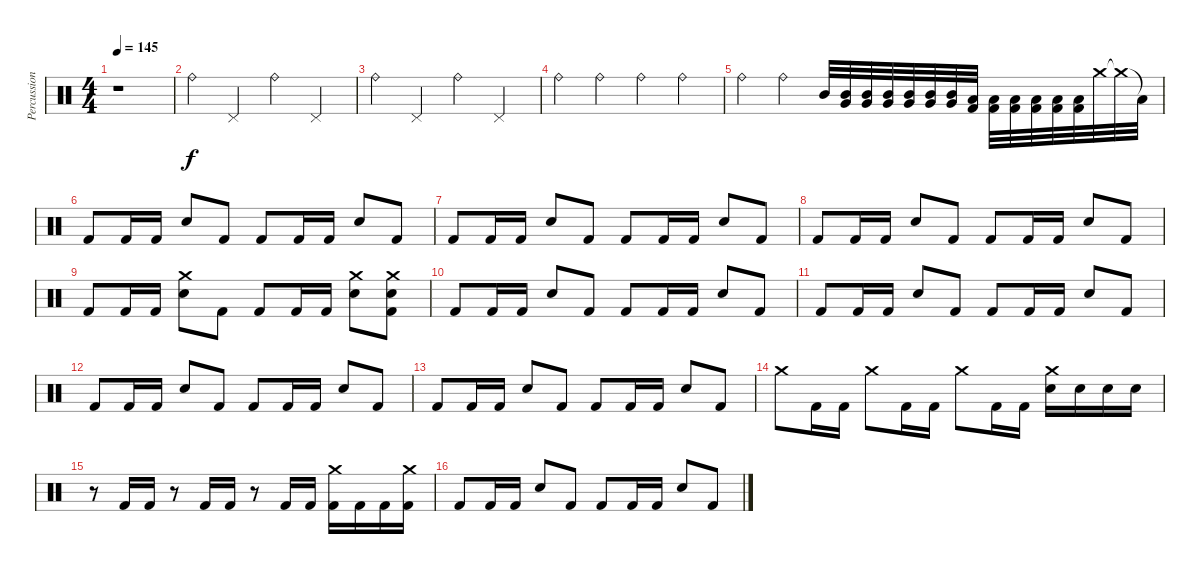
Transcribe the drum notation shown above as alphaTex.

\track ("Percussion" "Percussion") {instrument percussion}
\staff {score}
\articulation defaults
\ts (4 4)
\tempo 145
\clef neutral
\ks c
r.1{dy f} |
"Ride (bell)".4 "Pedal Hi-Hat (hit)".4 "Ride (bell)".4 "Pedal Hi-Hat (hit)".4 |
"Ride (bell)".4 "Pedal Hi-Hat (hit)".4 "Ride (bell)".4 "Pedal Hi-Hat (hit)".4 |
"Ride (bell)".4 "Ride (bell)".4 "Ride (bell)".4 "Ride (bell)".4 |
"Ride (bell)".4 "Ride (bell)".4 "Mid Tom (hit)".32{balance 0} ("Mid Tom (hit)" "Very Low Tom (hit)").32 ("Very Low Tom (hit)" "Mid Tom (hit)").32 ("Mid Tom (hit)" "Very Low Tom (hit)").32 ("Very Low Tom (hit)" "Mid Tom (hit)").32 ("Mid Tom (hit)" "Very Low Tom (hit)").32 ("Very Low Tom (hit)" "Mid Tom (hit)").32 ("Low Floor Tom (hit)" "Kick (hit) 2").32{balance 16} ("Low Floor Tom (hit)" "Kick (hit) 2").32 ("Low Floor Tom (hit)" "Kick (hit) 2").32 ("Low Floor Tom (hit)" "Kick (hit) 2").32 ("Low Floor Tom (hit)" "Kick (hit) 2").32 ("Low Floor Tom (hit)" "Kick (hit) 2").32 "Crash medium (hit)".32{balance 8} "Crash medium (hit)"{t}.32 "Low Tom (hit)"{t}.32 |
"Kick (hit) 2".8 "Kick (hit) 2".16 "Kick (hit) 2".16 "Snare (hit) 2".8 "Kick (hit) 2".8 "Kick (hit) 2".8 "Kick (hit) 2".16 "Kick (hit) 2".16 "Snare (hit) 2".8 "Kick (hit) 2".8 |
"Kick (hit) 2".8 "Kick (hit) 2".16 "Kick (hit) 2".16 "Snare (hit) 2".8 "Kick (hit) 2".8 "Kick (hit) 2".8 "Kick (hit) 2".16 "Kick (hit) 2".16 "Snare (hit) 2".8 "Kick (hit) 2".8 |
"Kick (hit) 2".8 "Kick (hit) 2".16 "Kick (hit) 2".16 "Snare (hit) 2".8 "Kick (hit) 2".8 "Kick (hit) 2".8 "Kick (hit) 2".16 "Kick (hit) 2".16 "Snare (hit) 2".8 "Kick (hit) 2".8 |
"Kick (hit) 2".8 "Kick (hit) 2".16 "Kick (hit) 2".16 ("Crash medium (hit)" "Snare (hit) 2").8 "Kick (hit) 2".8 "Kick (hit) 2".8 "Kick (hit) 2".16 "Kick (hit) 2".16 ("Crash medium (hit)" "Snare (hit) 2").8 ("Crash medium (hit)" "Snare (hit) 2" "Kick (hit) 2").8 |
"Kick (hit) 2".8 "Kick (hit) 2".16 "Kick (hit) 2".16 "Snare (hit) 2".8 "Kick (hit) 2".8 "Kick (hit) 2".8 "Kick (hit) 2".16 "Kick (hit) 2".16 "Snare (hit) 2".8 "Kick (hit) 2".8 |
"Kick (hit) 2".8 "Kick (hit) 2".16 "Kick (hit) 2".16 "Snare (hit) 2".8 "Kick (hit) 2".8 "Kick (hit) 2".8 "Kick (hit) 2".16 "Kick (hit) 2".16 "Snare (hit) 2".8 "Kick (hit) 2".8 |
"Kick (hit) 2".8 "Kick (hit) 2".16 "Kick (hit) 2".16 "Snare (hit) 2".8 "Kick (hit) 2".8 "Kick (hit) 2".8 "Kick (hit) 2".16 "Kick (hit) 2".16 "Snare (hit) 2".8 "Kick (hit) 2".8 |
"Kick (hit) 2".8 "Kick (hit) 2".16 "Kick (hit) 2".16 "Snare (hit) 2".8 "Kick (hit) 2".8 "Kick (hit) 2".8 "Kick (hit) 2".16 "Kick (hit) 2".16 "Snare (hit) 2".8 "Kick (hit) 2".8 |
"Crash medium (hit)".8 "Kick (hit) 2".16 "Kick (hit) 2".16 "Crash medium (hit)".8 "Kick (hit) 2".16 "Kick (hit) 2".16 "Crash medium (hit)".8 "Kick (hit) 2".16 "Kick (hit) 2".16 ("Crash medium (hit)" "Snare (hit) 2").16 "Snare (hit) 2".16 "Snare (hit) 2".16 "Snare (hit) 2".16 |
r.8 "Kick (hit) 2".16 "Kick (hit) 2".16 r.8 "Kick (hit) 2".16 "Kick (hit) 2".16 r.8 "Kick (hit) 2".16 "Kick (hit) 2".16 ("Crash medium (hit)" "Kick (hit) 2").16 "Kick (hit) 2".16 "Kick (hit) 2".16 ("Crash medium (hit)" "Kick (hit) 2").16 |
"Kick (hit) 2".8 "Kick (hit) 2".16 "Kick (hit) 2".16 "Snare (hit) 2".8 "Kick (hit) 2".8 "Kick (hit) 2".8 "Kick (hit) 2".16 "Kick (hit) 2".16 "Snare (hit) 2".8 "Kick (hit) 2".8
